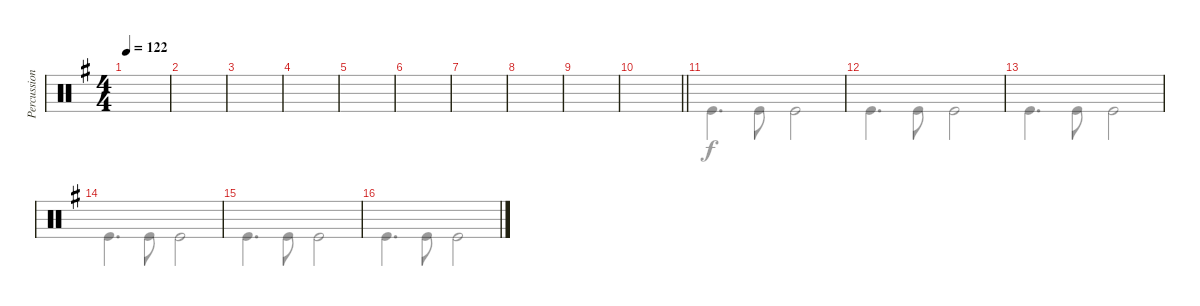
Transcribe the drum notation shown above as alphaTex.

\track ("Percussion" "Percussion") {instrument percussion}
\staff {score}
\articulation defaults
\voice
\ts (4 4)
\tempo 122
\clef neutral
\ks eminor
|
|
|
|
|
|
|
|
|
\barLineRight lightlight
|
|
|
|
|
|
\voice
\clef neutral
\ks eminor
|
|
|
|
|
|
|
|
|
\barLineRight lightlight
|
"Kick (hit)".4{d} "Kick (hit)".8 "Kick (hit)".2 |
"Kick (hit)".4{d} "Kick (hit)".8 "Kick (hit)".2 |
"Kick (hit)".4{d} "Kick (hit)".8 "Kick (hit)".2 |
"Kick (hit)".4{d} "Kick (hit)".8 "Kick (hit)".2 |
"Kick (hit)".4{d} "Kick (hit)".8 "Kick (hit)".2 |
"Kick (hit)".4{d} "Kick (hit)".8 "Kick (hit)".2
